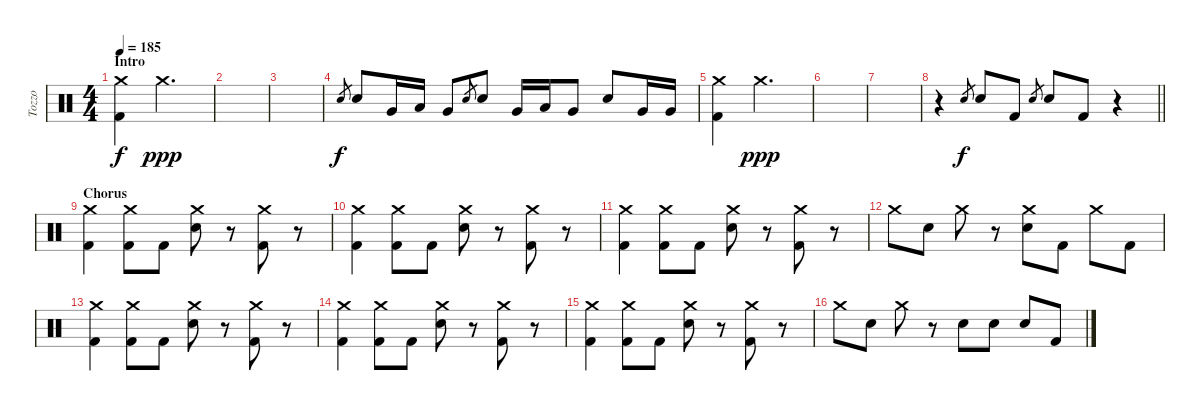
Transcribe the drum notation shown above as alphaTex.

\track ("Tozzo" "Tozzo") {instrument percussion}
\staff {score}
\articulation defaults
\ts (4 4)
\section ("" "Intro")
\tempo 185
\clef neutral
\ks c
("Crash medium (hit)" "Kick (hit) 2").4{dy f} "Crash medium (hit)".2{d dy ppp} |
|
|
"Electric Snare (hit)".8{gr dy f} "Electric Snare (hit)".8 "Very Low Tom (hit)".16 "Low Tom (hit)".16 "Very Low Tom (hit)".8 "Electric Snare (hit)".8{gr} "Electric Snare (hit)".8 "Very Low Tom (hit)".16 "Low Tom (hit)".16 "Very Low Tom (hit)".8 "Electric Snare (hit)".8 "Very Low Tom (hit)".16 "Very Low Tom (hit)".16 |
("Crash medium (hit)" "Kick (hit) 2").4 "Crash medium (hit)".2{d dy ppp} |
|
|
\barLineRight lightlight
r.4 "Electric Snare (hit)".8{gr dy f} "Electric Snare (hit)".8 "Kick (hit) 2".8 "Electric Snare (hit)".8{gr} "Electric Snare (hit)".8 "Kick (hit) 2".8 r.4 |
\section ("" "Chorus")
("Crash medium (hit)" "Kick (hit) 2").4 ("Crash medium (hit)" "Kick (hit) 2").8 "Kick (hit) 2".8 ("Crash medium (hit)" "Electric Snare (hit)").8 r.8 ("Crash medium (hit)" "Kick (hit) 2").8 r.8 |
("Crash medium (hit)" "Kick (hit) 2").4 ("Crash medium (hit)" "Kick (hit) 2").8 "Kick (hit) 2".8 ("Crash medium (hit)" "Electric Snare (hit)").8 r.8 ("Crash medium (hit)" "Kick (hit) 2").8 r.8 |
("Crash medium (hit)" "Kick (hit) 2").4 ("Crash medium (hit)" "Kick (hit) 2").8 "Kick (hit) 2".8 ("Crash medium (hit)" "Electric Snare (hit)").8 r.8 ("Crash medium (hit)" "Kick (hit) 2").8 r.8 |
"Crash medium (hit)".8 "Electric Snare (hit)".8 "Crash medium (hit)".8 r.8 ("Crash medium (hit)" "Electric Snare (hit)").8 "Kick (hit) 2".8 "Crash medium (hit)".8 "Kick (hit) 2".8 |
("Crash medium (hit)" "Kick (hit) 2").4 ("Crash medium (hit)" "Kick (hit) 2").8 "Kick (hit) 2".8 ("Crash medium (hit)" "Electric Snare (hit)").8 r.8 ("Crash medium (hit)" "Kick (hit) 2").8 r.8 |
("Crash medium (hit)" "Kick (hit) 2").4 ("Crash medium (hit)" "Kick (hit) 2").8 "Kick (hit) 2".8 ("Crash medium (hit)" "Electric Snare (hit)").8 r.8 ("Crash medium (hit)" "Kick (hit) 2").8 r.8 |
("Crash medium (hit)" "Kick (hit) 2").4 ("Crash medium (hit)" "Kick (hit) 2").8 "Kick (hit) 2".8 ("Crash medium (hit)" "Electric Snare (hit)").8 r.8 ("Crash medium (hit)" "Kick (hit) 2").8 r.8 |
"Crash medium (hit)".8 "Electric Snare (hit)".8 "Crash medium (hit)".8 r.8 "Electric Snare (hit)".8 "Electric Snare (hit)".8 "Electric Snare (hit)".8 "Kick (hit) 2".8
